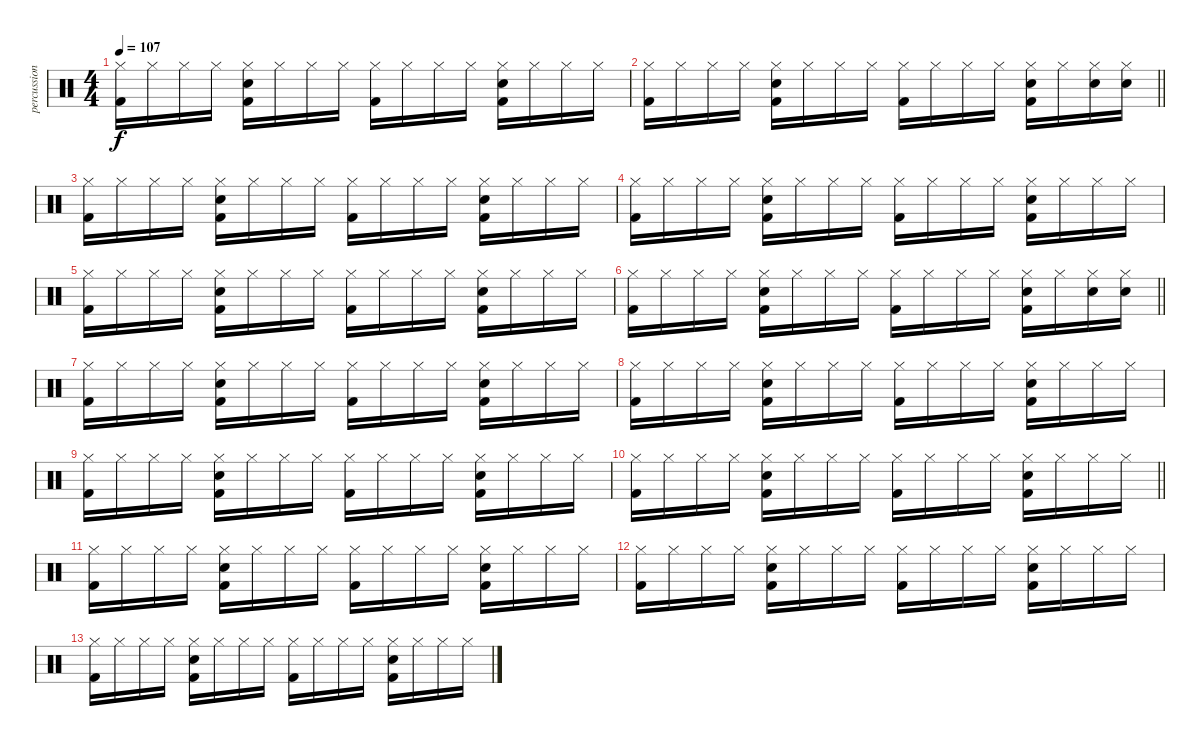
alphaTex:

\track ("percussion" "percussion") {instrument percussion}
\staff {score}
\articulation defaults
\ts (4 4)
\tempo 107
\clef neutral
\ks c
("Hi-Hat (closed)" "Kick (hit) 2").16{dy f} "Hi-Hat (closed)".16 "Hi-Hat (closed)".16 "Hi-Hat (closed)".16 ("Snare (hit) 2" "Hi-Hat (closed)" "Kick (hit) 2").16 "Hi-Hat (closed)".16 "Hi-Hat (closed)".16 "Hi-Hat (closed)".16 ("Hi-Hat (closed)" "Kick (hit) 2").16 "Hi-Hat (closed)".16 "Hi-Hat (closed)".16 "Hi-Hat (closed)".16 ("Snare (hit) 2" "Hi-Hat (closed)" "Kick (hit) 2").16 "Hi-Hat (closed)".16 "Hi-Hat (closed)".16 "Hi-Hat (closed)".16 |
\barLineRight lightlight
("Hi-Hat (closed)" "Kick (hit) 2").16 "Hi-Hat (closed)".16 "Hi-Hat (closed)".16 "Hi-Hat (closed)".16 ("Snare (hit) 2" "Hi-Hat (closed)" "Kick (hit) 2").16 "Hi-Hat (closed)".16 "Hi-Hat (closed)".16 "Hi-Hat (closed)".16 ("Hi-Hat (closed)" "Kick (hit) 2").16 "Hi-Hat (closed)".16 "Hi-Hat (closed)".16 "Hi-Hat (closed)".16 ("Snare (hit) 2" "Hi-Hat (closed)" "Kick (hit) 2").16 "Hi-Hat (closed)".16 ("Snare (hit) 2" "Hi-Hat (closed)").16 ("Snare (hit) 2" "Hi-Hat (closed)").16 |
("Hi-Hat (closed)" "Kick (hit) 2").16 "Hi-Hat (closed)".16 "Hi-Hat (closed)".16 "Hi-Hat (closed)".16 ("Snare (hit) 2" "Hi-Hat (closed)" "Kick (hit) 2").16 "Hi-Hat (closed)".16 "Hi-Hat (closed)".16 "Hi-Hat (closed)".16 ("Hi-Hat (closed)" "Kick (hit) 2").16 "Hi-Hat (closed)".16 "Hi-Hat (closed)".16 "Hi-Hat (closed)".16 ("Snare (hit) 2" "Hi-Hat (closed)" "Kick (hit) 2").16 "Hi-Hat (closed)".16 "Hi-Hat (closed)".16 "Hi-Hat (closed)".16 |
("Hi-Hat (closed)" "Kick (hit) 2").16 "Hi-Hat (closed)".16 "Hi-Hat (closed)".16 "Hi-Hat (closed)".16 ("Snare (hit) 2" "Hi-Hat (closed)" "Kick (hit) 2").16 "Hi-Hat (closed)".16 "Hi-Hat (closed)".16 "Hi-Hat (closed)".16 ("Hi-Hat (closed)" "Kick (hit) 2").16 "Hi-Hat (closed)".16 "Hi-Hat (closed)".16 "Hi-Hat (closed)".16 ("Snare (hit) 2" "Hi-Hat (closed)" "Kick (hit) 2").16 "Hi-Hat (closed)".16 "Hi-Hat (closed)".16 "Hi-Hat (closed)".16 |
("Hi-Hat (closed)" "Kick (hit) 2").16 "Hi-Hat (closed)".16 "Hi-Hat (closed)".16 "Hi-Hat (closed)".16 ("Snare (hit) 2" "Hi-Hat (closed)" "Kick (hit) 2").16 "Hi-Hat (closed)".16 "Hi-Hat (closed)".16 "Hi-Hat (closed)".16 ("Hi-Hat (closed)" "Kick (hit) 2").16 "Hi-Hat (closed)".16 "Hi-Hat (closed)".16 "Hi-Hat (closed)".16 ("Snare (hit) 2" "Hi-Hat (closed)" "Kick (hit) 2").16 "Hi-Hat (closed)".16 "Hi-Hat (closed)".16 "Hi-Hat (closed)".16 |
\barLineRight lightlight
("Hi-Hat (closed)" "Kick (hit) 2").16 "Hi-Hat (closed)".16 "Hi-Hat (closed)".16 "Hi-Hat (closed)".16 ("Snare (hit) 2" "Hi-Hat (closed)" "Kick (hit) 2").16 "Hi-Hat (closed)".16 "Hi-Hat (closed)".16 "Hi-Hat (closed)".16 ("Hi-Hat (closed)" "Kick (hit) 2").16 "Hi-Hat (closed)".16 "Hi-Hat (closed)".16 "Hi-Hat (closed)".16 ("Snare (hit) 2" "Hi-Hat (closed)" "Kick (hit) 2").16 "Hi-Hat (closed)".16 ("Snare (hit) 2" "Hi-Hat (closed)").16 ("Snare (hit) 2" "Hi-Hat (closed)").16 |
("Hi-Hat (closed)" "Kick (hit) 2").16 "Hi-Hat (closed)".16 "Hi-Hat (closed)".16 "Hi-Hat (closed)".16 ("Snare (hit) 2" "Hi-Hat (closed)" "Kick (hit) 2").16 "Hi-Hat (closed)".16 "Hi-Hat (closed)".16 "Hi-Hat (closed)".16 ("Hi-Hat (closed)" "Kick (hit) 2").16 "Hi-Hat (closed)".16 "Hi-Hat (closed)".16 "Hi-Hat (closed)".16 ("Snare (hit) 2" "Hi-Hat (closed)" "Kick (hit) 2").16 "Hi-Hat (closed)".16 "Hi-Hat (closed)".16 "Hi-Hat (closed)".16 |
("Hi-Hat (closed)" "Kick (hit) 2").16 "Hi-Hat (closed)".16 "Hi-Hat (closed)".16 "Hi-Hat (closed)".16 ("Snare (hit) 2" "Hi-Hat (closed)" "Kick (hit) 2").16 "Hi-Hat (closed)".16 "Hi-Hat (closed)".16 "Hi-Hat (closed)".16 ("Hi-Hat (closed)" "Kick (hit) 2").16 "Hi-Hat (closed)".16 "Hi-Hat (closed)".16 "Hi-Hat (closed)".16 ("Snare (hit) 2" "Hi-Hat (closed)" "Kick (hit) 2").16 "Hi-Hat (closed)".16 "Hi-Hat (closed)".16 "Hi-Hat (closed)".16 |
("Hi-Hat (closed)" "Kick (hit) 2").16 "Hi-Hat (closed)".16 "Hi-Hat (closed)".16 "Hi-Hat (closed)".16 ("Snare (hit) 2" "Hi-Hat (closed)" "Kick (hit) 2").16 "Hi-Hat (closed)".16 "Hi-Hat (closed)".16 "Hi-Hat (closed)".16 ("Hi-Hat (closed)" "Kick (hit) 2").16 "Hi-Hat (closed)".16 "Hi-Hat (closed)".16 "Hi-Hat (closed)".16 ("Snare (hit) 2" "Hi-Hat (closed)" "Kick (hit) 2").16 "Hi-Hat (closed)".16 "Hi-Hat (closed)".16 "Hi-Hat (closed)".16 |
\barLineRight lightlight
("Hi-Hat (closed)" "Kick (hit) 2").16 "Hi-Hat (closed)".16 "Hi-Hat (closed)".16 "Hi-Hat (closed)".16 ("Snare (hit) 2" "Hi-Hat (closed)" "Kick (hit) 2").16 "Hi-Hat (closed)".16 "Hi-Hat (closed)".16 "Hi-Hat (closed)".16 ("Hi-Hat (closed)" "Kick (hit) 2").16 "Hi-Hat (closed)".16 "Hi-Hat (closed)".16 "Hi-Hat (closed)".16 ("Snare (hit) 2" "Hi-Hat (closed)" "Kick (hit) 2").16 "Hi-Hat (closed)".16 "Hi-Hat (closed)".16 "Hi-Hat (closed)".16 |
("Hi-Hat (closed)" "Kick (hit) 2").16 "Hi-Hat (closed)".16 "Hi-Hat (closed)".16 "Hi-Hat (closed)".16 ("Snare (hit) 2" "Hi-Hat (closed)" "Kick (hit) 2").16 "Hi-Hat (closed)".16 "Hi-Hat (closed)".16 "Hi-Hat (closed)".16 ("Hi-Hat (closed)" "Kick (hit) 2").16 "Hi-Hat (closed)".16 "Hi-Hat (closed)".16 "Hi-Hat (closed)".16 ("Snare (hit) 2" "Hi-Hat (closed)" "Kick (hit) 2").16 "Hi-Hat (closed)".16 "Hi-Hat (closed)".16 "Hi-Hat (closed)".16 |
("Hi-Hat (closed)" "Kick (hit) 2").16 "Hi-Hat (closed)".16 "Hi-Hat (closed)".16 "Hi-Hat (closed)".16 ("Snare (hit) 2" "Hi-Hat (closed)" "Kick (hit) 2").16 "Hi-Hat (closed)".16 "Hi-Hat (closed)".16 "Hi-Hat (closed)".16 ("Hi-Hat (closed)" "Kick (hit) 2").16 "Hi-Hat (closed)".16 "Hi-Hat (closed)".16 "Hi-Hat (closed)".16 ("Snare (hit) 2" "Hi-Hat (closed)" "Kick (hit) 2").16 "Hi-Hat (closed)".16 "Hi-Hat (closed)".16 "Hi-Hat (closed)".16 |
("Hi-Hat (closed)" "Kick (hit) 2").16 "Hi-Hat (closed)".16 "Hi-Hat (closed)".16 "Hi-Hat (closed)".16 ("Snare (hit) 2" "Hi-Hat (closed)" "Kick (hit) 2").16 "Hi-Hat (closed)".16 "Hi-Hat (closed)".16 "Hi-Hat (closed)".16 ("Hi-Hat (closed)" "Kick (hit) 2").16 "Hi-Hat (closed)".16 "Hi-Hat (closed)".16 "Hi-Hat (closed)".16 ("Snare (hit) 2" "Hi-Hat (closed)" "Kick (hit) 2").16 "Hi-Hat (closed)".16 "Hi-Hat (closed)".16 "Hi-Hat (closed)".16
